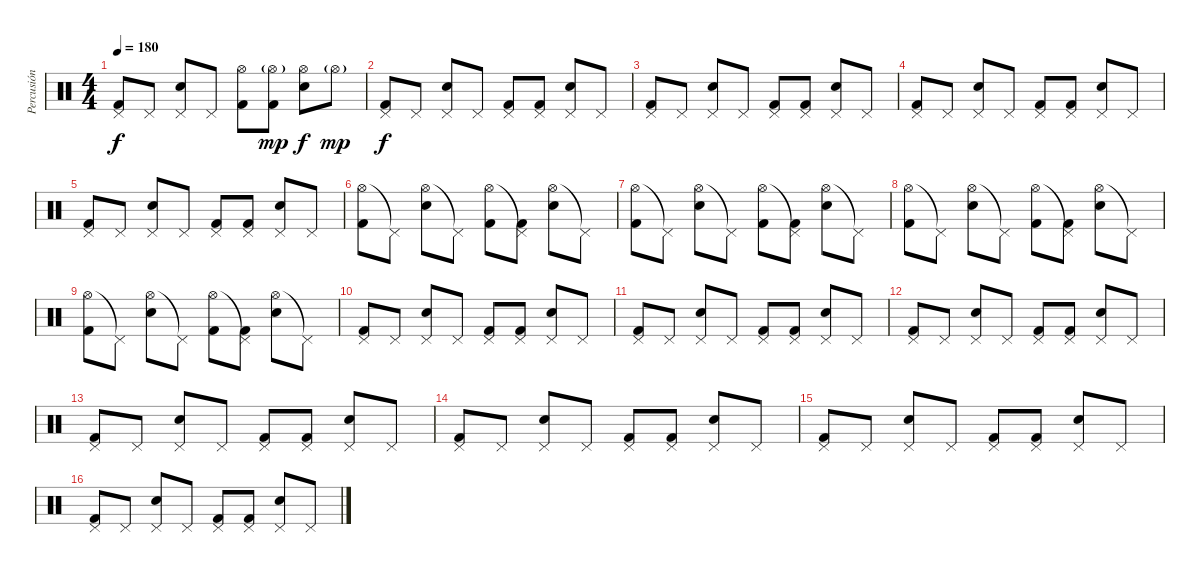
\track ("Percusión" "Percusión") {instrument percussion}
\staff {score}
\articulation defaults
\ts (4 4)
\tempo 180
\clef neutral
\ks c
("Pedal Hi-Hat (hit)" "Kick (hit) 2").8{dy f} "Pedal Hi-Hat (hit)".8 ("Pedal Hi-Hat (hit)" "Electric Snare (hit)").8 "Pedal Hi-Hat (hit)".8 ("Hi-Hat (open)" "Kick (hit) 2").8 ("Hi-Hat (open)"{g} "Kick (hit) 2").8{dy mp} ("Hi-Hat (open)" "Electric Snare (hit)").8{dy f} "Hi-Hat (open)"{g}.8{dy mp} |
("Pedal Hi-Hat (hit)" "Kick (hit) 2").8{dy f} "Pedal Hi-Hat (hit)".8 ("Pedal Hi-Hat (hit)" "Electric Snare (hit)").8 "Pedal Hi-Hat (hit)".8 ("Pedal Hi-Hat (hit)" "Kick (hit) 2").8 ("Pedal Hi-Hat (hit)" "Kick (hit) 2").8 ("Pedal Hi-Hat (hit)" "Electric Snare (hit)").8 "Pedal Hi-Hat (hit)".8 |
("Pedal Hi-Hat (hit)" "Kick (hit) 2").8 "Pedal Hi-Hat (hit)".8 ("Pedal Hi-Hat (hit)" "Electric Snare (hit)").8 "Pedal Hi-Hat (hit)".8 ("Pedal Hi-Hat (hit)" "Kick (hit) 2").8 ("Pedal Hi-Hat (hit)" "Kick (hit) 2").8 ("Pedal Hi-Hat (hit)" "Electric Snare (hit)").8 "Pedal Hi-Hat (hit)".8 |
("Pedal Hi-Hat (hit)" "Kick (hit) 2").8 "Pedal Hi-Hat (hit)".8 ("Pedal Hi-Hat (hit)" "Electric Snare (hit)").8 "Pedal Hi-Hat (hit)".8 ("Pedal Hi-Hat (hit)" "Kick (hit) 2").8 ("Pedal Hi-Hat (hit)" "Kick (hit) 2").8 ("Pedal Hi-Hat (hit)" "Electric Snare (hit)").8 "Pedal Hi-Hat (hit)".8 |
("Pedal Hi-Hat (hit)" "Kick (hit) 2").8 "Pedal Hi-Hat (hit)".8 ("Pedal Hi-Hat (hit)" "Electric Snare (hit)").8 "Pedal Hi-Hat (hit)".8 ("Pedal Hi-Hat (hit)" "Kick (hit) 2").8 ("Pedal Hi-Hat (hit)" "Kick (hit) 2").8 ("Pedal Hi-Hat (hit)" "Electric Snare (hit)").8 "Pedal Hi-Hat (hit)".8 |
("Hi-Hat (open)" "Kick (hit) 2").8 "Pedal Hi-Hat (hit)"{t}.8 ("Hi-Hat (open)" "Electric Snare (hit)").8 "Pedal Hi-Hat (hit)"{t}.8 ("Hi-Hat (open)" "Kick (hit) 2").8 ("Pedal Hi-Hat (hit)"{t} "Kick (hit) 2").8 ("Hi-Hat (open)" "Electric Snare (hit)").8 "Pedal Hi-Hat (hit)"{t}.8 |
("Hi-Hat (open)" "Kick (hit) 2").8 "Pedal Hi-Hat (hit)"{t}.8 ("Hi-Hat (open)" "Electric Snare (hit)").8 "Pedal Hi-Hat (hit)"{t}.8 ("Hi-Hat (open)" "Kick (hit) 2").8 ("Pedal Hi-Hat (hit)"{t} "Kick (hit) 2").8 ("Hi-Hat (open)" "Electric Snare (hit)").8 "Pedal Hi-Hat (hit)"{t}.8 |
("Hi-Hat (open)" "Kick (hit) 2").8 "Pedal Hi-Hat (hit)"{t}.8 ("Hi-Hat (open)" "Electric Snare (hit)").8 "Pedal Hi-Hat (hit)"{t}.8 ("Hi-Hat (open)" "Kick (hit) 2").8 ("Pedal Hi-Hat (hit)"{t} "Kick (hit) 2").8 ("Hi-Hat (open)" "Electric Snare (hit)").8 "Pedal Hi-Hat (hit)"{t}.8 |
("Hi-Hat (open)" "Kick (hit) 2").8 "Pedal Hi-Hat (hit)"{t}.8 ("Hi-Hat (open)" "Electric Snare (hit)").8 "Pedal Hi-Hat (hit)"{t}.8 ("Hi-Hat (open)" "Kick (hit) 2").8 ("Pedal Hi-Hat (hit)"{t} "Kick (hit) 2").8 ("Hi-Hat (open)" "Electric Snare (hit)").8 "Pedal Hi-Hat (hit)"{t}.8 |
("Pedal Hi-Hat (hit)" "Kick (hit) 2").8 "Pedal Hi-Hat (hit)".8 ("Pedal Hi-Hat (hit)" "Electric Snare (hit)").8 "Pedal Hi-Hat (hit)".8 ("Pedal Hi-Hat (hit)" "Kick (hit) 2").8 ("Pedal Hi-Hat (hit)" "Kick (hit) 2").8 ("Pedal Hi-Hat (hit)" "Electric Snare (hit)").8 "Pedal Hi-Hat (hit)".8 |
("Pedal Hi-Hat (hit)" "Kick (hit) 2").8 "Pedal Hi-Hat (hit)".8 ("Pedal Hi-Hat (hit)" "Electric Snare (hit)").8 "Pedal Hi-Hat (hit)".8 ("Pedal Hi-Hat (hit)" "Kick (hit) 2").8 ("Pedal Hi-Hat (hit)" "Kick (hit) 2").8 ("Pedal Hi-Hat (hit)" "Electric Snare (hit)").8 "Pedal Hi-Hat (hit)".8 |
("Pedal Hi-Hat (hit)" "Kick (hit) 2").8 "Pedal Hi-Hat (hit)".8 ("Pedal Hi-Hat (hit)" "Electric Snare (hit)").8 "Pedal Hi-Hat (hit)".8 ("Pedal Hi-Hat (hit)" "Kick (hit) 2").8 ("Pedal Hi-Hat (hit)" "Kick (hit) 2").8 ("Pedal Hi-Hat (hit)" "Electric Snare (hit)").8 "Pedal Hi-Hat (hit)".8 |
("Pedal Hi-Hat (hit)" "Kick (hit) 2").8 "Pedal Hi-Hat (hit)".8 ("Pedal Hi-Hat (hit)" "Electric Snare (hit)").8 "Pedal Hi-Hat (hit)".8 ("Pedal Hi-Hat (hit)" "Kick (hit) 2").8 ("Pedal Hi-Hat (hit)" "Kick (hit) 2").8 ("Pedal Hi-Hat (hit)" "Electric Snare (hit)").8 "Pedal Hi-Hat (hit)".8 |
("Pedal Hi-Hat (hit)" "Kick (hit) 2").8 "Pedal Hi-Hat (hit)".8 ("Pedal Hi-Hat (hit)" "Electric Snare (hit)").8 "Pedal Hi-Hat (hit)".8 ("Pedal Hi-Hat (hit)" "Kick (hit) 2").8 ("Pedal Hi-Hat (hit)" "Kick (hit) 2").8 ("Pedal Hi-Hat (hit)" "Electric Snare (hit)").8 "Pedal Hi-Hat (hit)".8 |
("Pedal Hi-Hat (hit)" "Kick (hit) 2").8 "Pedal Hi-Hat (hit)".8 ("Pedal Hi-Hat (hit)" "Electric Snare (hit)").8 "Pedal Hi-Hat (hit)".8 ("Pedal Hi-Hat (hit)" "Kick (hit) 2").8 ("Pedal Hi-Hat (hit)" "Kick (hit) 2").8 ("Pedal Hi-Hat (hit)" "Electric Snare (hit)").8 "Pedal Hi-Hat (hit)".8 |
("Pedal Hi-Hat (hit)" "Kick (hit) 2").8 "Pedal Hi-Hat (hit)".8 ("Pedal Hi-Hat (hit)" "Electric Snare (hit)").8 "Pedal Hi-Hat (hit)".8 ("Pedal Hi-Hat (hit)" "Kick (hit) 2").8 ("Pedal Hi-Hat (hit)" "Kick (hit) 2").8 ("Pedal Hi-Hat (hit)" "Electric Snare (hit)").8 "Pedal Hi-Hat (hit)".8
